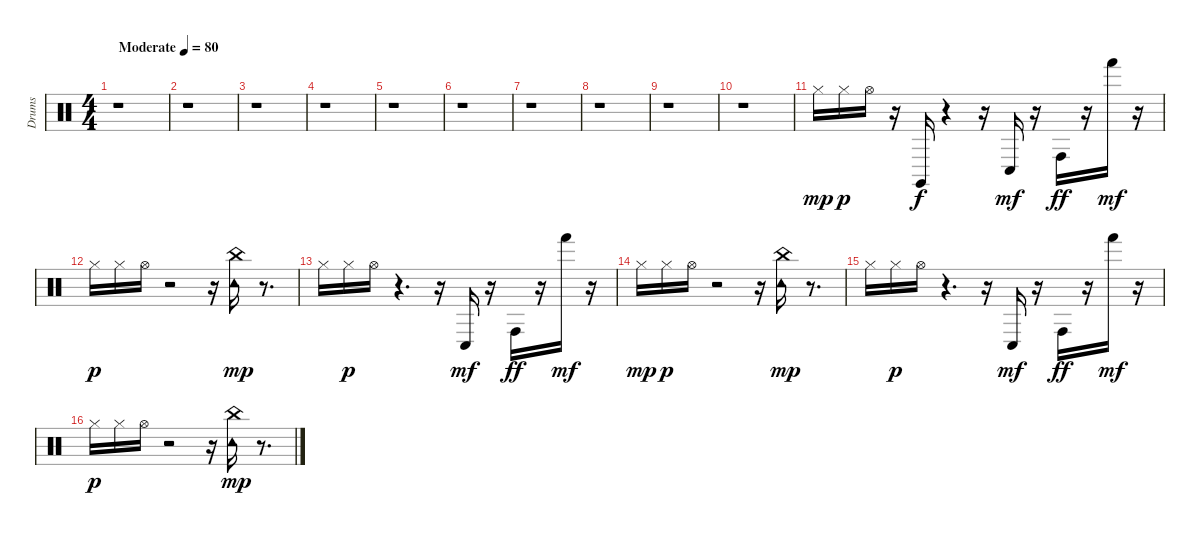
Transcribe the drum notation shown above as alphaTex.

\track ("Drums   " "Drums   ") {instrument percussion}
\staff {score}
\articulation defaults
\ts (4 4)
\tempo (80 "Moderate")
\clef neutral
\ks c
r.1{dy mp} |
r.1 |
r.1 |
r.1 |
r.1 |
r.1 |
r.1 |
r.1 |
r.1 |
r.1 |
"Hi-Hat (closed)".16 "Hi-Hat (closed)".16{dy p} "Hi-Hat (open)".16 r.16 "Claves (hit)".16{dy f} r.4 r.16 "Conga low (hit)".16{dy mf} r.16 "Conga high (hit)".16{dy ff} r.16 "Hand (hit)".16{dy mf} r.16 |
"Hi-Hat (closed)".16{dy p} "Hi-Hat (closed)".16 "Hi-Hat (open)".16 r.2 r.16 ("China (hit)" "Tambourine (hit)").16{dy mp} r.8{d} |
"Hi-Hat (closed)".16 "Hi-Hat (closed)".16{dy p} "Hi-Hat (open)".16 r.4{d} r.16 "Conga low (hit)".16{dy mf} r.16 "Conga high (hit)".16{dy ff} r.16 "Hand (hit)".16{dy mf} r.16 |
"Hi-Hat (closed)".16{dy mp} "Hi-Hat (closed)".16{dy p} "Hi-Hat (open)".16 r.2 r.16 ("China (hit)" "Tambourine (hit)").16{dy mp} r.8{d} |
"Hi-Hat (closed)".16 "Hi-Hat (closed)".16{dy p} "Hi-Hat (open)".16 r.4{d} r.16 "Conga low (hit)".16{dy mf} r.16 "Conga high (hit)".16{dy ff} r.16 "Hand (hit)".16{dy mf} r.16 |
"Hi-Hat (closed)".16{dy p} "Hi-Hat (closed)".16 "Hi-Hat (open)".16 r.2 r.16 ("China (hit)" "Tambourine (hit)").16{dy mp} r.8{d}
